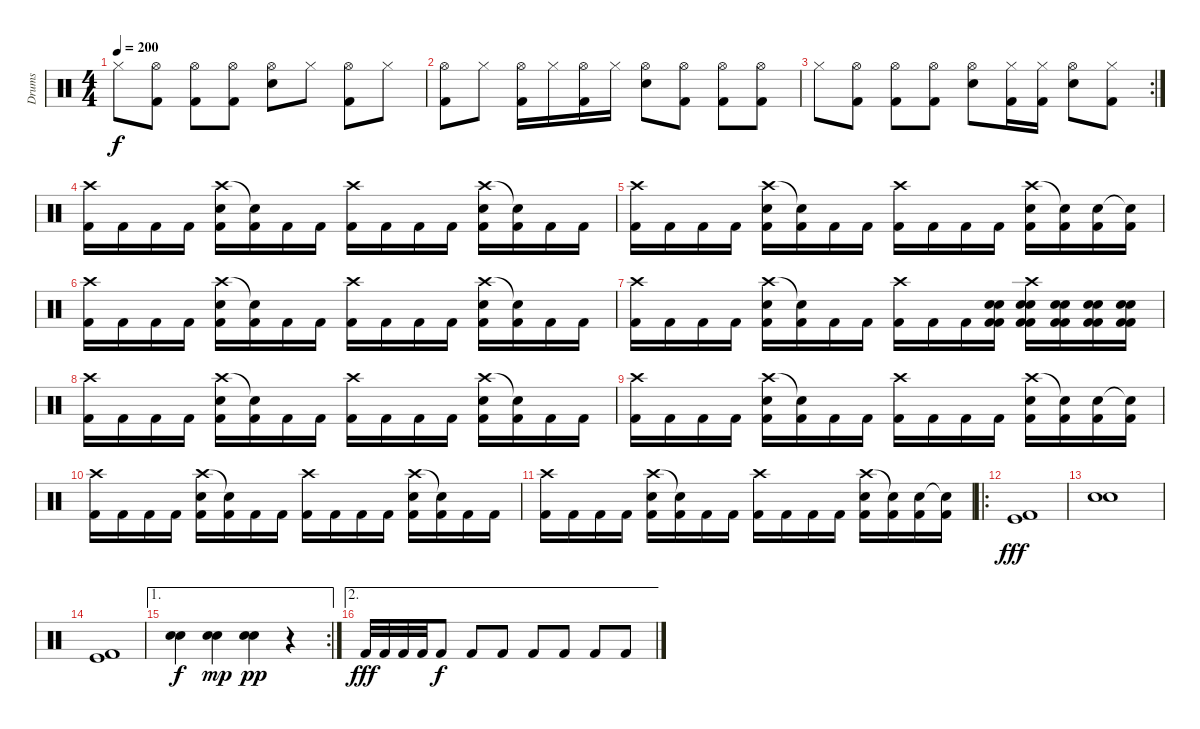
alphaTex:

\track ("Drums" "Drums") {instrument percussion}
\staff {score}
\articulation defaults
\ts (4 4)
\tempo 200
\clef neutral
\ks c "Hi-Hat (closed)".8{dy f}
("Hi-Hat (open)" "Kick (hit) 2").8 ("Hi-Hat (open)" "Kick (hit) 2").8 ("Hi-Hat (open)" "Kick (hit) 2").8 ("Hi-Hat (open)" "Electric Snare (hit)").8 "Hi-Hat (closed)".8 ("Hi-Hat (open)" "Kick (hit) 2").8 "Hi-Hat (closed)".8 |
("Hi-Hat (open)" "Kick (hit) 2").8 "Hi-Hat (closed)".8 ("Hi-Hat (open)" "Kick (hit) 2").16 "Hi-Hat (closed)".16 ("Hi-Hat (open)" "Kick (hit) 2").16 "Hi-Hat (closed)".16 ("Hi-Hat (open)" "Electric Snare (hit)").8 ("Hi-Hat (open)" "Kick (hit) 2").8 ("Hi-Hat (open)" "Kick (hit) 2").8 ("Hi-Hat (open)" "Kick (hit) 2").8 |
\rc 2 "Hi-Hat (closed)".8
("Hi-Hat (open)" "Kick (hit) 2").8 ("Hi-Hat (open)" "Kick (hit) 2").8 ("Hi-Hat (open)" "Kick (hit) 2").8 ("Hi-Hat (open)" "Electric Snare (hit)").8 ("Hi-Hat (closed)" "Kick (hit) 2").16 ("Hi-Hat (closed)" "Kick (hit) 2").16 ("Hi-Hat (open)" "Electric Snare (hit)").8 ("Hi-Hat (closed)" "Kick (hit) 2").8 |
("Crash high (hit)" "Kick (hit) 2").16 "Kick (hit) 2".16 "Kick (hit) 2".16 "Kick (hit) 2".16 ("Crash high (hit)" "Electric Snare (hit)" "Kick (hit) 2").16 ("Snare (hit)"{t} "Kick (hit) 2").16 "Kick (hit) 2".16 "Kick (hit) 2".16 ("Crash high (hit)" "Kick (hit) 2").16 "Kick (hit) 2".16 "Kick (hit) 2".16 "Kick (hit) 2".16 ("Crash high (hit)" "Electric Snare (hit)" "Kick (hit) 2").16 ("Snare (hit)"{t} "Kick (hit) 2").16 "Kick (hit) 2".16 "Kick (hit) 2".16 |
("Crash high (hit)" "Kick (hit) 2").16 "Kick (hit) 2".16 "Kick (hit) 2".16 "Kick (hit) 2".16 ("Crash high (hit)" "Electric Snare (hit)" "Kick (hit) 2").16 ("Snare (hit)"{t} "Kick (hit) 2").16 "Kick (hit) 2".16 "Kick (hit) 2".16 ("Crash high (hit)" "Kick (hit) 2").16 "Kick (hit) 2".16 "Kick (hit) 2".16 "Kick (hit) 2".16 ("Crash high (hit)" "Electric Snare (hit)" "Kick (hit) 2").16 ("Snare (hit)"{t} "Kick (hit) 2").16 ("Electric Snare (hit)" "Kick (hit) 2").16 ("Snare (hit)"{t} "Kick (hit) 2").16 |
("Crash high (hit)" "Kick (hit) 2").16 "Kick (hit) 2".16 "Kick (hit) 2".16 "Kick (hit) 2".16 ("Crash high (hit)" "Electric Snare (hit)" "Kick (hit) 2").16 ("Snare (hit)"{t} "Kick (hit) 2").16 "Kick (hit) 2".16 "Kick (hit) 2".16 ("Crash high (hit)" "Kick (hit) 2").16 "Kick (hit) 2".16 "Kick (hit) 2".16 "Kick (hit) 2".16 ("Crash high (hit)" "Electric Snare (hit)" "Kick (hit) 2").16 ("Snare (hit)"{t} "Kick (hit) 2").16 "Kick (hit) 2".16 "Kick (hit) 2".16 |
("Crash high (hit)" "Kick (hit) 2").16 "Kick (hit) 2".16 "Kick (hit) 2".16 "Kick (hit) 2".16 ("Crash high (hit)" "Electric Snare (hit)" "Kick (hit) 2").16 ("Snare (hit)"{t} "Kick (hit) 2").16 "Kick (hit) 2".16 "Kick (hit) 2".16 ("Crash high (hit)" "Kick (hit) 2").16 "Kick (hit) 2".16 "Kick (hit) 2".16 ("Electric Snare (hit)" "Kick (hit) 2" "Electric Snare (hit)" "Kick (hit) 2").16 ("Crash high (hit)" "Electric Snare (hit)" "Kick (hit) 2" "Electric Snare (hit)" "Kick (hit) 2").16 ("Electric Snare (hit)" "Kick (hit) 2" "Electric Snare (hit)" "Kick (hit) 2").16 ("Electric Snare (hit)" "Kick (hit) 2" "Electric Snare (hit)" "Kick (hit) 2").16 ("Electric Snare (hit)" "Kick (hit) 2" "Electric Snare (hit)" "Kick (hit) 2").16 |
("Crash high (hit)" "Kick (hit) 2").16 "Kick (hit) 2".16 "Kick (hit) 2".16 "Kick (hit) 2".16 ("Crash high (hit)" "Electric Snare (hit)" "Kick (hit) 2").16 ("Snare (hit)"{t} "Kick (hit) 2").16 "Kick (hit) 2".16 "Kick (hit) 2".16 ("Crash high (hit)" "Kick (hit) 2").16 "Kick (hit) 2".16 "Kick (hit) 2".16 "Kick (hit) 2".16 ("Crash high (hit)" "Electric Snare (hit)" "Kick (hit) 2").16 ("Snare (hit)"{t} "Kick (hit) 2").16 "Kick (hit) 2".16 "Kick (hit) 2".16 |
("Crash high (hit)" "Kick (hit) 2").16 "Kick (hit) 2".16 "Kick (hit) 2".16 "Kick (hit) 2".16 ("Crash high (hit)" "Electric Snare (hit)" "Kick (hit) 2").16 ("Snare (hit)"{t} "Kick (hit) 2").16 "Kick (hit) 2".16 "Kick (hit) 2".16 ("Crash high (hit)" "Kick (hit) 2").16 "Kick (hit) 2".16 "Kick (hit) 2".16 "Kick (hit) 2".16 ("Crash high (hit)" "Electric Snare (hit)" "Kick (hit) 2").16 ("Snare (hit)"{t} "Kick (hit) 2").16 ("Electric Snare (hit)" "Kick (hit) 2").16 ("Snare (hit)"{t} "Kick (hit) 2").16 |
("Crash high (hit)" "Kick (hit) 2").16 "Kick (hit) 2".16 "Kick (hit) 2".16 "Kick (hit) 2".16 ("Crash high (hit)" "Electric Snare (hit)" "Kick (hit) 2").16 ("Snare (hit)"{t} "Kick (hit) 2").16 "Kick (hit) 2".16 "Kick (hit) 2".16 ("Crash high (hit)" "Kick (hit) 2").16 "Kick (hit) 2".16 "Kick (hit) 2".16 "Kick (hit) 2".16 ("Crash high (hit)" "Electric Snare (hit)" "Kick (hit) 2").16 ("Snare (hit)"{t} "Kick (hit) 2").16 "Kick (hit) 2".16 "Kick (hit) 2".16 |
("Crash high (hit)" "Kick (hit) 2").16 "Kick (hit) 2".16 "Kick (hit) 2".16 "Kick (hit) 2".16 ("Crash high (hit)" "Electric Snare (hit)" "Kick (hit) 2").16 ("Snare (hit)"{t} "Kick (hit) 2").16 "Kick (hit) 2".16 "Kick (hit) 2".16 ("Crash high (hit)" "Kick (hit) 2").16 "Kick (hit) 2".16 "Kick (hit) 2".16 "Kick (hit) 2".16 ("Crash high (hit)" "Electric Snare (hit)" "Kick (hit) 2").16 ("Snare (hit)"{t} "Kick (hit) 2").16 ("Electric Snare (hit)" "Kick (hit) 2").16 ("Snare (hit)"{t} "Kick (hit) 2").16 |
\ro
("Kick (hit)" "Kick (hit) 2").1{dy fff} |
("Electric Snare (hit)" "Electric Snare (hit)").1 |
("Kick (hit)" "Kick (hit) 2").1 |
\ae 1
\rc 2
("Electric Snare (hit)" "Electric Snare (hit)").4{dy f} ("Electric Snare (hit)" "Electric Snare (hit)").4{dy mp} ("Electric Snare (hit)" "Electric Snare (hit)").4{dy pp} r.4 |
\ae 2 "Kick (hit) 2".32{dy fff} "Kick (hit) 2".32 "Kick (hit) 2".32 "Kick (hit) 2".32 "Kick (hit) 2".8{dy f} "Kick (hit) 2".8 "Kick (hit) 2".8 "Kick (hit) 2".8 "Kick (hit) 2".8 "Kick (hit) 2".8 "Kick (hit) 2".8
